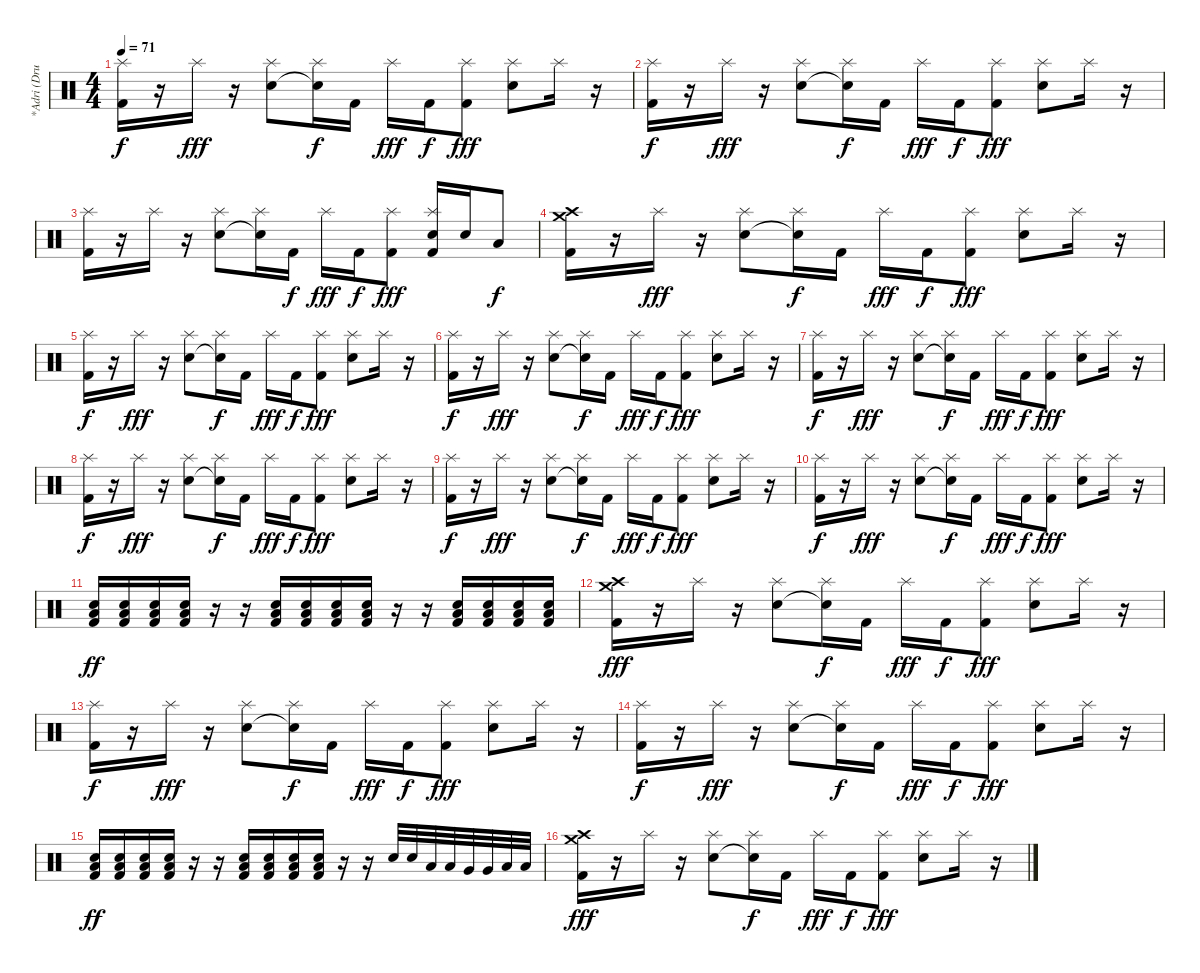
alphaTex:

\track ("*Adri (Drum)" "*Adri (Dru") {instrument percussion}
\staff {score}
\articulation defaults
\ts (4 4)
\tempo 71
\clef neutral
\ks c
("Kick (hit) 2" "Splash (hit)").16{dy f} r.16 "Splash (hit)".16{dy fff} r.16 ("Electric Snare (hit)" "Splash (hit)").8 ("Snare (hit)"{t} "Splash (hit)").16{dy f} "Kick (hit) 2".16 "Splash (hit)".16{dy fff} "Kick (hit) 2".16{dy f} ("Kick (hit) 2" "Splash (hit)").8{dy fff} ("Electric Snare (hit)" "Splash (hit)").8 "Splash (hit)".16 r.16 |
("Kick (hit) 2" "Splash (hit)").16{dy f} r.16 "Splash (hit)".16{dy fff} r.16 ("Electric Snare (hit)" "Splash (hit)").8 ("Snare (hit)"{t} "Splash (hit)").16{dy f} "Kick (hit) 2".16 "Splash (hit)".16{dy fff} "Kick (hit) 2".16{dy f} ("Kick (hit) 2" "Splash (hit)").8{dy fff} ("Electric Snare (hit)" "Splash (hit)").8 "Splash (hit)".16 r.16 |
("Kick (hit) 2" "Splash (hit)").16 r.16 "Splash (hit)".16 r.16 ("Electric Snare (hit)" "Splash (hit)").8 ("Snare (hit)"{t} "Splash (hit)").16 "Kick (hit) 2".16{dy f} "Splash (hit)".16{dy fff} "Kick (hit) 2".16{dy f} ("Kick (hit) 2" "Splash (hit)").8{dy fff} ("Kick (hit) 2" "Electric Snare (hit)" "Splash (hit)").16 "Electric Snare (hit)".16 "Low Tom (hit)".8{dy f} |
("Kick (hit) 2" "Crash medium (hit)" "Crash high (hit)").16 r.16 "Splash (hit)".16{dy fff} r.16 ("Electric Snare (hit)" "Splash (hit)").8 ("Snare (hit)"{t} "Splash (hit)").16{dy f} "Kick (hit) 2".16 "Splash (hit)".16{dy fff} "Kick (hit) 2".16{dy f} ("Kick (hit) 2" "Splash (hit)").8{dy fff} ("Electric Snare (hit)" "Splash (hit)").8 "Splash (hit)".16 r.16 |
("Kick (hit) 2" "Splash (hit)").16{dy f} r.16 "Splash (hit)".16{dy fff} r.16 ("Electric Snare (hit)" "Splash (hit)").8 ("Snare (hit)"{t} "Splash (hit)").16{dy f} "Kick (hit) 2".16 "Splash (hit)".16{dy fff} "Kick (hit) 2".16{dy f} ("Kick (hit) 2" "Splash (hit)").8{dy fff} ("Electric Snare (hit)" "Splash (hit)").8 "Splash (hit)".16 r.16 |
("Kick (hit) 2" "Splash (hit)").16{dy f} r.16 "Splash (hit)".16{dy fff} r.16 ("Electric Snare (hit)" "Splash (hit)").8 ("Snare (hit)"{t} "Splash (hit)").16{dy f} "Kick (hit) 2".16 "Splash (hit)".16{dy fff} "Kick (hit) 2".16{dy f} ("Kick (hit) 2" "Splash (hit)").8{dy fff} ("Electric Snare (hit)" "Splash (hit)").8 "Splash (hit)".16 r.16 |
("Kick (hit) 2" "Splash (hit)").16{dy f} r.16 "Splash (hit)".16{dy fff} r.16 ("Electric Snare (hit)" "Splash (hit)").8 ("Snare (hit)"{t} "Splash (hit)").16{dy f} "Kick (hit) 2".16 "Splash (hit)".16{dy fff} "Kick (hit) 2".16{dy f} ("Kick (hit) 2" "Splash (hit)").8{dy fff} ("Electric Snare (hit)" "Splash (hit)").8 "Splash (hit)".16 r.16 |
("Kick (hit) 2" "Splash (hit)").16{dy f} r.16 "Splash (hit)".16{dy fff} r.16 ("Electric Snare (hit)" "Splash (hit)").8 ("Snare (hit)"{t} "Splash (hit)").16{dy f} "Kick (hit) 2".16 "Splash (hit)".16{dy fff} "Kick (hit) 2".16{dy f} ("Kick (hit) 2" "Splash (hit)").8{dy fff} ("Electric Snare (hit)" "Splash (hit)").8 "Splash (hit)".16 r.16 |
("Kick (hit) 2" "Splash (hit)").16{dy f} r.16 "Splash (hit)".16{dy fff} r.16 ("Electric Snare (hit)" "Splash (hit)").8 ("Snare (hit)"{t} "Splash (hit)").16{dy f} "Kick (hit) 2".16 "Splash (hit)".16{dy fff} "Kick (hit) 2".16{dy f} ("Kick (hit) 2" "Splash (hit)").8{dy fff} ("Electric Snare (hit)" "Splash (hit)").8 "Splash (hit)".16 r.16 |
("Kick (hit) 2" "Splash (hit)").16{dy f} r.16 "Splash (hit)".16{dy fff} r.16 ("Electric Snare (hit)" "Splash (hit)").8 ("Snare (hit)"{t} "Splash (hit)").16{dy f} "Kick (hit) 2".16 "Splash (hit)".16{dy fff} "Kick (hit) 2".16{dy f} ("Kick (hit) 2" "Splash (hit)").8{dy fff} ("Electric Snare (hit)" "Splash (hit)").8 "Splash (hit)".16 r.16 |
("Kick (hit) 2" "Electric Snare (hit)" "Low Floor Tom (hit)").16{dy ff} ("Kick (hit) 2" "Electric Snare (hit)" "Low Floor Tom (hit)").16 ("Kick (hit) 2" "Electric Snare (hit)" "Low Floor Tom (hit)").16 ("Kick (hit) 2" "Electric Snare (hit)" "Low Floor Tom (hit)").16 r.16 r.16 ("Kick (hit) 2" "Electric Snare (hit)" "Low Floor Tom (hit)").16 ("Kick (hit) 2" "Electric Snare (hit)" "Low Floor Tom (hit)").16{beam merge} ("Kick (hit) 2" "Electric Snare (hit)" "Low Floor Tom (hit)").16 ("Kick (hit) 2" "Electric Snare (hit)" "Low Floor Tom (hit)").16 r.16 r.16 ("Kick (hit) 2" "Electric Snare (hit)" "Low Floor Tom (hit)").16 ("Kick (hit) 2" "Electric Snare (hit)" "Low Floor Tom (hit)").16 ("Kick (hit) 2" "Electric Snare (hit)" "Low Floor Tom (hit)").16 ("Kick (hit) 2" "Electric Snare (hit)" "Low Floor Tom (hit)").16 |
("Kick (hit) 2" "Crash medium (hit)" "Crash high (hit)").16{dy fff} r.16 "Splash (hit)".16 r.16 ("Electric Snare (hit)" "Splash (hit)").8 ("Snare (hit)"{t} "Splash (hit)").16{dy f} "Kick (hit) 2".16 "Splash (hit)".16{dy fff} "Kick (hit) 2".16{dy f} ("Kick (hit) 2" "Splash (hit)").8{dy fff} ("Electric Snare (hit)" "Splash (hit)").8 "Splash (hit)".16 r.16 |
("Kick (hit) 2" "Splash (hit)").16{dy f} r.16 "Splash (hit)".16{dy fff} r.16 ("Electric Snare (hit)" "Splash (hit)").8 ("Snare (hit)"{t} "Splash (hit)").16{dy f} "Kick (hit) 2".16 "Splash (hit)".16{dy fff} "Kick (hit) 2".16{dy f} ("Kick (hit) 2" "Splash (hit)").8{dy fff} ("Electric Snare (hit)" "Splash (hit)").8 "Splash (hit)".16 r.16 |
("Kick (hit) 2" "Splash (hit)").16{dy f} r.16 "Splash (hit)".16{dy fff} r.16 ("Electric Snare (hit)" "Splash (hit)").8 ("Snare (hit)"{t} "Splash (hit)").16{dy f} "Kick (hit) 2".16 "Splash (hit)".16{dy fff} "Kick (hit) 2".16{dy f} ("Kick (hit) 2" "Splash (hit)").8{dy fff} ("Electric Snare (hit)" "Splash (hit)").8 "Splash (hit)".16 r.16 |
("Kick (hit) 2" "Electric Snare (hit)" "Low Floor Tom (hit)").16{dy ff} ("Kick (hit) 2" "Electric Snare (hit)" "Low Floor Tom (hit)").16 ("Kick (hit) 2" "Electric Snare (hit)" "Low Floor Tom (hit)").16 ("Kick (hit) 2" "Electric Snare (hit)" "Low Floor Tom (hit)").16 r.16 r.16 ("Kick (hit) 2" "Electric Snare (hit)" "Low Floor Tom (hit)").16 ("Kick (hit) 2" "Electric Snare (hit)" "Low Floor Tom (hit)").16{beam merge} ("Kick (hit) 2" "Electric Snare (hit)" "Low Floor Tom (hit)").16 ("Kick (hit) 2" "Electric Snare (hit)" "Low Floor Tom (hit)").16 r.16 r.16 "Electric Snare (hit)".32 "Electric Snare (hit)".32 "Low Tom (hit)".32 "Low Tom (hit)".32 "Very Low Tom (hit)".32 "Very Low Tom (hit)".32 "Low Floor Tom (hit)".32 "Low Floor Tom (hit)".32 |
("Kick (hit) 2" "Crash medium (hit)" "Crash high (hit)").16{dy fff} r.16 "Splash (hit)".16 r.16 ("Electric Snare (hit)" "Splash (hit)").8 ("Snare (hit)"{t} "Splash (hit)").16{dy f} "Kick (hit) 2".16 "Splash (hit)".16{dy fff} "Kick (hit) 2".16{dy f} ("Kick (hit) 2" "Splash (hit)").8{dy fff} ("Electric Snare (hit)" "Splash (hit)").8 "Splash (hit)".16 r.16
